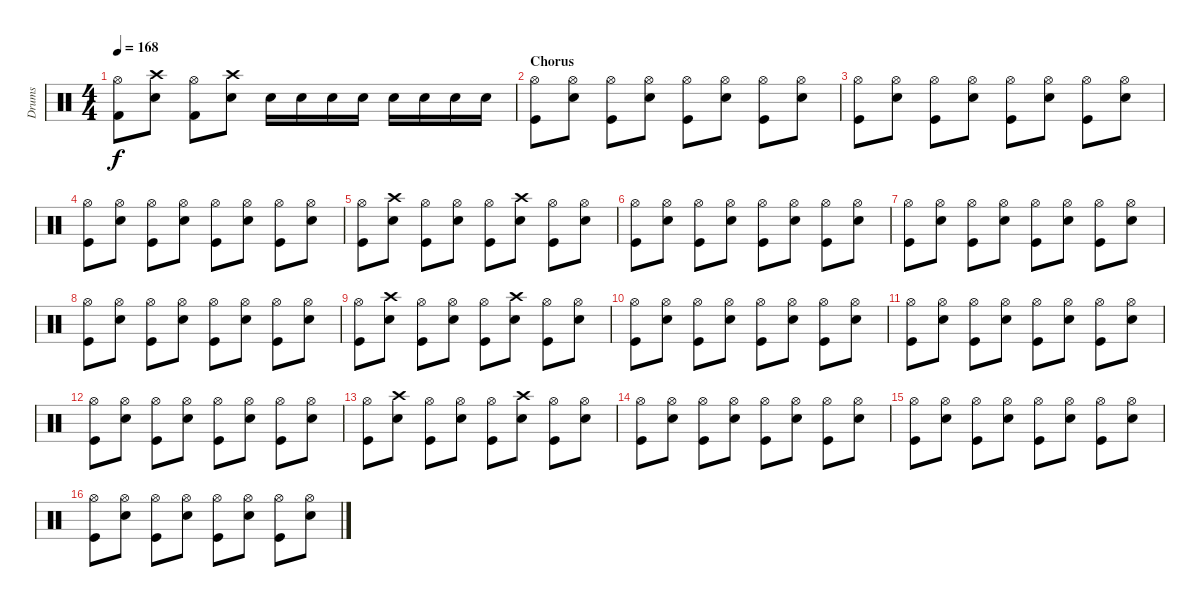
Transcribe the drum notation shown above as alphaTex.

\track ("Drums" "Drums") {instrument percussion}
\staff {score}
\articulation defaults
\ts (4 4)
\tempo 168
\clef neutral
\ks c
("Hi-Hat (open)" "Kick (hit) 2").8{dy f} ("Crash high (hit)" "Snare (hit) 2").8 ("Hi-Hat (open)" "Kick (hit) 2").8 ("Crash high (hit)" "Snare (hit) 2").8 "Snare (hit) 2".16 "Snare (hit) 2".16 "Snare (hit) 2".16 "Snare (hit) 2".16 "Snare (hit) 2".16 "Snare (hit) 2".16 "Snare (hit) 2".16 "Snare (hit) 2".16 |
\section ("" "Chorus")
("Hi-Hat (open)" "Kick (hit)").8 ("Hi-Hat (open)" "Snare (hit) 2").8 ("Hi-Hat (open)" "Kick (hit)").8 ("Hi-Hat (open)" "Snare (hit) 2").8 ("Hi-Hat (open)" "Kick (hit)").8 ("Hi-Hat (open)" "Snare (hit) 2").8 ("Hi-Hat (open)" "Kick (hit)").8 ("Hi-Hat (open)" "Snare (hit) 2").8 |
("Hi-Hat (open)" "Kick (hit)").8 ("Hi-Hat (open)" "Snare (hit) 2").8 ("Hi-Hat (open)" "Kick (hit)").8 ("Hi-Hat (open)" "Snare (hit) 2").8 ("Hi-Hat (open)" "Kick (hit)").8 ("Hi-Hat (open)" "Snare (hit) 2").8 ("Hi-Hat (open)" "Kick (hit)").8 ("Hi-Hat (open)" "Snare (hit) 2").8 |
("Hi-Hat (open)" "Kick (hit)").8 ("Hi-Hat (open)" "Snare (hit) 2").8 ("Hi-Hat (open)" "Kick (hit)").8 ("Hi-Hat (open)" "Snare (hit) 2").8 ("Hi-Hat (open)" "Kick (hit)").8 ("Hi-Hat (open)" "Snare (hit) 2").8 ("Hi-Hat (open)" "Kick (hit)").8 ("Hi-Hat (open)" "Snare (hit) 2").8 |
("Hi-Hat (open)" "Kick (hit)").8 ("Crash high (hit)" "Snare (hit) 2").8 ("Hi-Hat (open)" "Kick (hit)").8 ("Hi-Hat (open)" "Snare (hit) 2").8 ("Hi-Hat (open)" "Kick (hit)").8 ("Crash high (hit)" "Snare (hit) 2").8 ("Hi-Hat (open)" "Kick (hit)").8 ("Hi-Hat (open)" "Snare (hit) 2").8 |
("Hi-Hat (open)" "Kick (hit)").8 ("Hi-Hat (open)" "Snare (hit) 2").8 ("Hi-Hat (open)" "Kick (hit)").8 ("Hi-Hat (open)" "Snare (hit) 2").8 ("Hi-Hat (open)" "Kick (hit)").8 ("Hi-Hat (open)" "Snare (hit) 2").8 ("Hi-Hat (open)" "Kick (hit)").8 ("Hi-Hat (open)" "Snare (hit) 2").8 |
("Hi-Hat (open)" "Kick (hit)").8 ("Hi-Hat (open)" "Snare (hit) 2").8 ("Hi-Hat (open)" "Kick (hit)").8 ("Hi-Hat (open)" "Snare (hit) 2").8 ("Hi-Hat (open)" "Kick (hit)").8 ("Hi-Hat (open)" "Snare (hit) 2").8 ("Hi-Hat (open)" "Kick (hit)").8 ("Hi-Hat (open)" "Snare (hit) 2").8 |
("Hi-Hat (open)" "Kick (hit)").8 ("Hi-Hat (open)" "Snare (hit) 2").8 ("Hi-Hat (open)" "Kick (hit)").8 ("Hi-Hat (open)" "Snare (hit) 2").8 ("Hi-Hat (open)" "Kick (hit)").8 ("Hi-Hat (open)" "Snare (hit) 2").8 ("Hi-Hat (open)" "Kick (hit)").8 ("Hi-Hat (open)" "Snare (hit) 2").8 |
("Hi-Hat (open)" "Kick (hit)").8 ("Crash high (hit)" "Snare (hit) 2").8 ("Hi-Hat (open)" "Kick (hit)").8 ("Hi-Hat (open)" "Snare (hit) 2").8 ("Hi-Hat (open)" "Kick (hit)").8 ("Crash high (hit)" "Snare (hit) 2").8 ("Hi-Hat (open)" "Kick (hit)").8 ("Hi-Hat (open)" "Snare (hit) 2").8 |
("Hi-Hat (open)" "Kick (hit)").8 ("Hi-Hat (open)" "Snare (hit) 2").8 ("Hi-Hat (open)" "Kick (hit)").8 ("Hi-Hat (open)" "Snare (hit) 2").8 ("Hi-Hat (open)" "Kick (hit)").8 ("Hi-Hat (open)" "Snare (hit) 2").8 ("Hi-Hat (open)" "Kick (hit)").8 ("Hi-Hat (open)" "Snare (hit) 2").8 |
("Hi-Hat (open)" "Kick (hit)").8 ("Hi-Hat (open)" "Snare (hit) 2").8 ("Hi-Hat (open)" "Kick (hit)").8 ("Hi-Hat (open)" "Snare (hit) 2").8 ("Hi-Hat (open)" "Kick (hit)").8 ("Hi-Hat (open)" "Snare (hit) 2").8 ("Hi-Hat (open)" "Kick (hit)").8 ("Hi-Hat (open)" "Snare (hit) 2").8 |
("Hi-Hat (open)" "Kick (hit)").8 ("Hi-Hat (open)" "Snare (hit) 2").8 ("Hi-Hat (open)" "Kick (hit)").8 ("Hi-Hat (open)" "Snare (hit) 2").8 ("Hi-Hat (open)" "Kick (hit)").8 ("Hi-Hat (open)" "Snare (hit) 2").8 ("Hi-Hat (open)" "Kick (hit)").8 ("Hi-Hat (open)" "Snare (hit) 2").8 |
("Hi-Hat (open)" "Kick (hit)").8 ("Crash high (hit)" "Snare (hit) 2").8 ("Hi-Hat (open)" "Kick (hit)").8 ("Hi-Hat (open)" "Snare (hit) 2").8 ("Hi-Hat (open)" "Kick (hit)").8 ("Crash high (hit)" "Snare (hit) 2").8 ("Hi-Hat (open)" "Kick (hit)").8 ("Hi-Hat (open)" "Snare (hit) 2").8 |
("Hi-Hat (open)" "Kick (hit)").8 ("Hi-Hat (open)" "Snare (hit) 2").8 ("Hi-Hat (open)" "Kick (hit)").8 ("Hi-Hat (open)" "Snare (hit) 2").8 ("Hi-Hat (open)" "Kick (hit)").8 ("Hi-Hat (open)" "Snare (hit) 2").8 ("Hi-Hat (open)" "Kick (hit)").8 ("Hi-Hat (open)" "Snare (hit) 2").8 |
("Hi-Hat (open)" "Kick (hit)").8 ("Hi-Hat (open)" "Snare (hit) 2").8 ("Hi-Hat (open)" "Kick (hit)").8 ("Hi-Hat (open)" "Snare (hit) 2").8 ("Hi-Hat (open)" "Kick (hit)").8 ("Hi-Hat (open)" "Snare (hit) 2").8 ("Hi-Hat (open)" "Kick (hit)").8 ("Hi-Hat (open)" "Snare (hit) 2").8 |
("Hi-Hat (open)" "Kick (hit)").8 ("Hi-Hat (open)" "Snare (hit) 2").8 ("Hi-Hat (open)" "Kick (hit)").8 ("Hi-Hat (open)" "Snare (hit) 2").8 ("Hi-Hat (open)" "Kick (hit)").8 ("Hi-Hat (open)" "Snare (hit) 2").8 ("Hi-Hat (open)" "Kick (hit)").8 ("Hi-Hat (open)" "Snare (hit) 2").8
